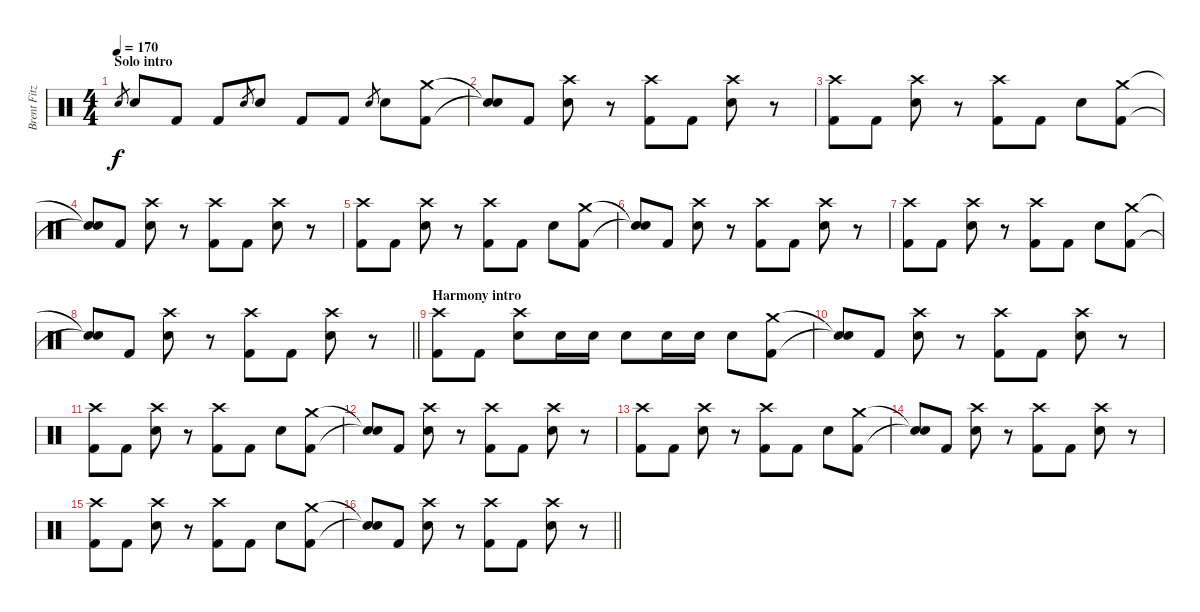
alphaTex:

\track ("Brent Fitz" "Brent Fitz") {instrument percussion}
\staff {score}
\articulation defaults
\ts (4 4)
\section ("" "Solo intro")
\tempo 170
\clef neutral
\ks c "Electric Snare (hit)".8{gr dy f} "Electric Snare (hit)".8 "Kick (hit) 2".8 "Kick (hit) 2".8 "Electric Snare (hit)".8{gr} "Electric Snare (hit)".8 "Kick (hit) 2".8 "Kick (hit) 2".8 "Electric Snare (hit)".8{gr} "Electric Snare (hit)".8
("Crash medium (hit)" "Kick (hit) 2").8 |
("Snare (hit)"{t} "Snare (hit)"{t}).8 "Kick (hit) 2".8 ("Crash high (hit)" "Electric Snare (hit)").8 r.8 ("Crash high (hit)" "Kick (hit) 2").8 "Kick (hit) 2".8 ("Crash high (hit)" "Electric Snare (hit)").8 r.8 |
("Crash high (hit)" "Kick (hit) 2").8 "Kick (hit) 2".8 ("Crash high (hit)" "Electric Snare (hit)").8 r.8 ("Crash high (hit)" "Kick (hit) 2").8 "Kick (hit) 2".8 "Electric Snare (hit)".8 ("Crash medium (hit)" "Kick (hit) 2").8 |
("Snare (hit)"{t} "Snare (hit)"{t}).8 "Kick (hit) 2".8 ("Crash high (hit)" "Electric Snare (hit)").8 r.8 ("Crash high (hit)" "Kick (hit) 2").8 "Kick (hit) 2".8 ("Crash high (hit)" "Electric Snare (hit)").8 r.8 |
("Crash high (hit)" "Kick (hit) 2").8 "Kick (hit) 2".8 ("Crash high (hit)" "Electric Snare (hit)").8 r.8 ("Crash high (hit)" "Kick (hit) 2").8 "Kick (hit) 2".8 "Electric Snare (hit)".8 ("Crash medium (hit)" "Kick (hit) 2").8 |
("Snare (hit)"{t} "Snare (hit)"{t}).8 "Kick (hit) 2".8 ("Crash high (hit)" "Electric Snare (hit)").8 r.8 ("Crash high (hit)" "Kick (hit) 2").8 "Kick (hit) 2".8 ("Crash high (hit)" "Electric Snare (hit)").8 r.8 |
("Crash high (hit)" "Kick (hit) 2").8 "Kick (hit) 2".8 ("Crash high (hit)" "Electric Snare (hit)").8 r.8 ("Crash high (hit)" "Kick (hit) 2").8 "Kick (hit) 2".8 "Electric Snare (hit)".8 ("Crash medium (hit)" "Kick (hit) 2").8 |
\barLineRight lightlight
("Snare (hit)"{t} "Snare (hit)"{t}).8 "Kick (hit) 2".8 ("Crash high (hit)" "Electric Snare (hit)").8 r.8 ("Crash high (hit)" "Kick (hit) 2").8 "Kick (hit) 2".8 ("Crash high (hit)" "Electric Snare (hit)").8 r.8 |
\section ("" "Harmony intro")
("Crash high (hit)" "Kick (hit) 2").8 "Kick (hit) 2".8 ("Crash high (hit)" "Electric Snare (hit)").8 "Electric Snare (hit)".16 "Electric Snare (hit)".16 "Electric Snare (hit)".8 "Electric Snare (hit)".16 "Electric Snare (hit)".16 "Electric Snare (hit)".8 ("Crash medium (hit)" "Kick (hit) 2").8 |
("Snare (hit)"{t} "Snare (hit)"{t}).8 "Kick (hit) 2".8 ("Crash high (hit)" "Electric Snare (hit)").8 r.8 ("Crash high (hit)" "Kick (hit) 2").8 "Kick (hit) 2".8 ("Crash high (hit)" "Electric Snare (hit)").8 r.8 |
("Crash high (hit)" "Kick (hit) 2").8 "Kick (hit) 2".8 ("Crash high (hit)" "Electric Snare (hit)").8 r.8 ("Crash high (hit)" "Kick (hit) 2").8 "Kick (hit) 2".8 "Electric Snare (hit)".8 ("Crash medium (hit)" "Kick (hit) 2").8 |
("Snare (hit)"{t} "Snare (hit)"{t}).8 "Kick (hit) 2".8 ("Crash high (hit)" "Electric Snare (hit)").8 r.8 ("Crash high (hit)" "Kick (hit) 2").8 "Kick (hit) 2".8 ("Crash high (hit)" "Electric Snare (hit)").8 r.8 |
("Crash high (hit)" "Kick (hit) 2").8 "Kick (hit) 2".8 ("Crash high (hit)" "Electric Snare (hit)").8 r.8 ("Crash high (hit)" "Kick (hit) 2").8 "Kick (hit) 2".8 "Electric Snare (hit)".8 ("Crash medium (hit)" "Kick (hit) 2").8 |
("Snare (hit)"{t} "Snare (hit)"{t}).8 "Kick (hit) 2".8 ("Crash high (hit)" "Electric Snare (hit)").8 r.8 ("Crash high (hit)" "Kick (hit) 2").8 "Kick (hit) 2".8 ("Crash high (hit)" "Electric Snare (hit)").8 r.8 |
("Crash high (hit)" "Kick (hit) 2").8 "Kick (hit) 2".8 ("Crash high (hit)" "Electric Snare (hit)").8 r.8 ("Crash high (hit)" "Kick (hit) 2").8 "Kick (hit) 2".8 "Electric Snare (hit)".8 ("Crash medium (hit)" "Kick (hit) 2").8 |
\barLineRight lightlight
("Snare (hit)"{t} "Snare (hit)"{t}).8 "Kick (hit) 2".8 ("Crash high (hit)" "Electric Snare (hit)").8 r.8 ("Crash high (hit)" "Kick (hit) 2").8 "Kick (hit) 2".8 ("Crash high (hit)" "Electric Snare (hit)").8 r.8
